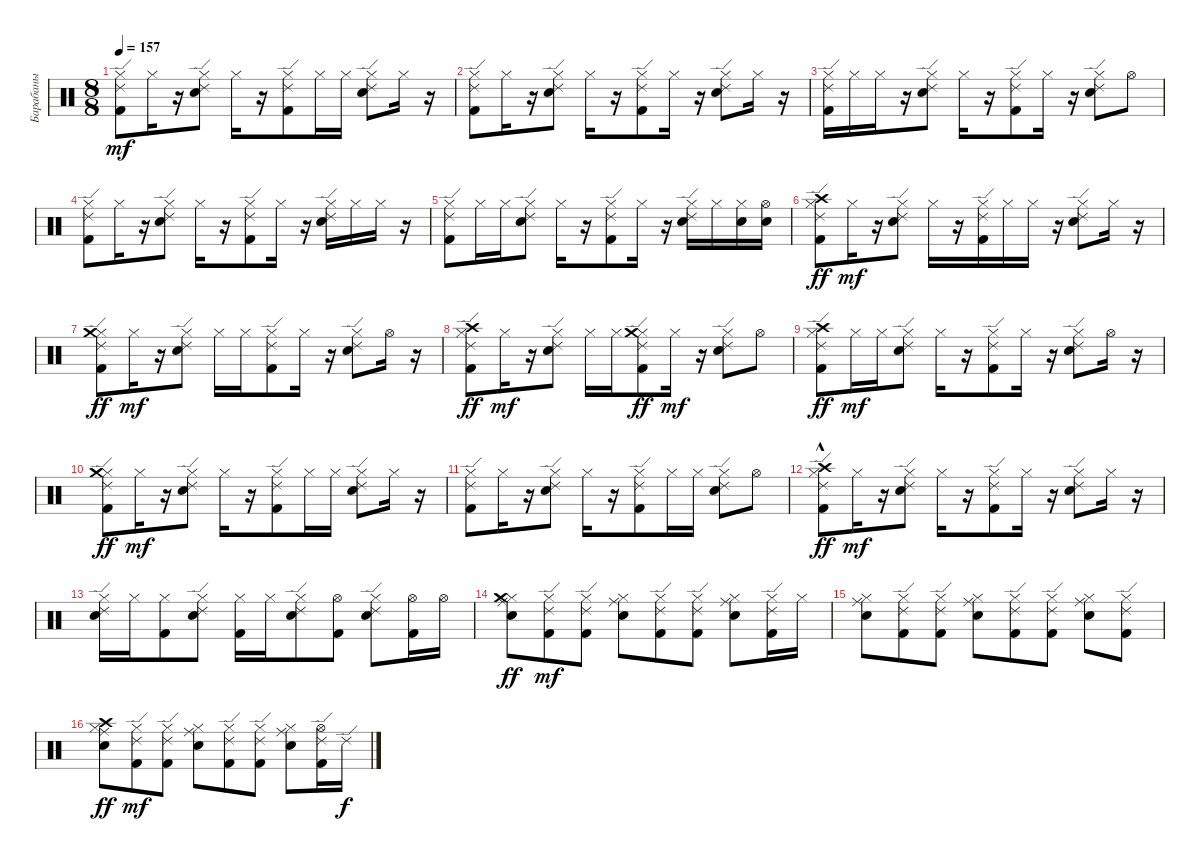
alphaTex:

\track ("Барабаны" "Барабаны") {instrument percussion}
\staff {score}
\articulation defaults
\ts (8 8)
\tempo 157
\clef neutral
\ks c
("Kick (hit) 2" "Hi-Hat (closed)" "Ride (edge) 2").8{dy mf} "Hi-Hat (closed)".16 r.16 ("Snare (hit) 2" "Hi-Hat (closed)" "Ride (edge) 2").8 "Hi-Hat (closed)".16 r.16 ("Kick (hit) 2" "Hi-Hat (closed)" "Ride (edge) 2").8 "Hi-Hat (closed)".16 "Hi-Hat (closed)".16 ("Snare (hit) 2" "Hi-Hat (closed)" "Ride (edge) 2").8 "Hi-Hat (closed)".16 r.16 |
("Kick (hit) 2" "Hi-Hat (closed)" "Ride (edge) 2").8 "Hi-Hat (closed)".16 r.16 ("Snare (hit) 2" "Hi-Hat (closed)" "Ride (edge) 2").8 "Hi-Hat (closed)".16 r.16 ("Kick (hit) 2" "Hi-Hat (closed)" "Ride (edge) 2").8 "Hi-Hat (closed)".16 r.16 ("Snare (hit) 2" "Hi-Hat (closed)" "Ride (edge) 2").8 "Hi-Hat (closed)".16 r.16 |
("Kick (hit) 2" "Hi-Hat (closed)" "Ride (edge) 2").16 "Hi-Hat (closed)".16 "Hi-Hat (closed)".16 r.16 ("Snare (hit) 2" "Hi-Hat (closed)" "Ride (edge) 2").8 "Hi-Hat (closed)".16 r.16 ("Kick (hit) 2" "Hi-Hat (closed)" "Ride (edge) 2").8 "Hi-Hat (closed)".16 r.16 ("Snare (hit) 2" "Hi-Hat (closed)" "Ride (edge) 2").8 "Hi-Hat (open)".8 |
("Kick (hit) 2" "Hi-Hat (closed)" "Ride (edge) 2").8 "Hi-Hat (closed)".16 r.16 ("Snare (hit) 2" "Hi-Hat (closed)" "Ride (edge) 2").8 "Hi-Hat (closed)".16 r.16 ("Kick (hit) 2" "Hi-Hat (closed)" "Ride (edge) 2").8 "Hi-Hat (closed)".16 r.16 ("Snare (hit) 2" "Hi-Hat (closed)" "Ride (edge) 2").16 "Hi-Hat (closed)".16 "Hi-Hat (closed)".16 r.16 |
("Kick (hit) 2" "Hi-Hat (closed)" "Ride (edge) 2").8 "Hi-Hat (closed)".16 "Hi-Hat (closed)".16 ("Snare (hit) 2" "Hi-Hat (closed)" "Ride (edge) 2").8 "Hi-Hat (closed)".16 r.16 ("Kick (hit) 2" "Hi-Hat (closed)" "Ride (edge) 2").8 "Hi-Hat (closed)".16 r.16 ("Snare (hit) 2" "Hi-Hat (closed)" "Ride (edge) 2").16 "Hi-Hat (closed)".16 ("Snare (hit) 2" "Hi-Hat (closed)").16 ("Snare (hit) 2" "Hi-Hat (open)").16 |
("Kick (hit) 2" "Hi-Hat (closed)" "Ride (edge) 2" "Crash high (hit)").8{dy ff} "Hi-Hat (closed)".16{dy mf} r.16 ("Snare (hit) 2" "Hi-Hat (closed)" "Ride (edge) 2").8 "Hi-Hat (closed)".16 r.16 ("Kick (hit) 2" "Hi-Hat (closed)" "Ride (edge) 2").16 "Hi-Hat (closed)".16 "Hi-Hat (closed)".16 r.16 ("Snare (hit) 2" "Hi-Hat (closed)" "Ride (edge) 2").8 "Hi-Hat (closed)".16 r.16 |
("Kick (hit) 2" "Hi-Hat (closed)" "Ride (edge) 2" "Crash medium (hit)").8{dy ff} "Hi-Hat (closed)".16{dy mf} r.16 ("Snare (hit) 2" "Hi-Hat (closed)" "Ride (edge) 2").8 "Hi-Hat (closed)".16 "Hi-Hat (closed)".16 ("Kick (hit) 2" "Hi-Hat (closed)" "Ride (edge) 2").8 "Hi-Hat (closed)".16 r.16 ("Snare (hit) 2" "Hi-Hat (closed)" "Ride (edge) 2").8 "Hi-Hat (open)".16 r.16 |
("Kick (hit) 2" "Hi-Hat (closed)" "Ride (edge) 2" "Crash high (hit)").8{dy ff} "Hi-Hat (closed)".16{dy mf} r.16 ("Snare (hit) 2" "Hi-Hat (closed)" "Ride (edge) 2").8 "Hi-Hat (closed)".16 "Hi-Hat (closed)".16 ("Kick (hit) 2" "Hi-Hat (closed)" "Ride (edge) 2" "Crash medium (hit)").8{dy ff} "Hi-Hat (closed)".16{dy mf} r.16 ("Snare (hit) 2" "Hi-Hat (closed)" "Ride (edge) 2").8 "Hi-Hat (open)".8 |
("Kick (hit) 2" "Hi-Hat (closed)" "Ride (edge) 2" "Crash high (hit)").8{dy ff} "Hi-Hat (closed)".16{dy mf} "Hi-Hat (closed)".16 ("Snare (hit) 2" "Hi-Hat (closed)" "Ride (edge) 2").8 "Hi-Hat (closed)".16 r.16 ("Kick (hit) 2" "Hi-Hat (closed)" "Ride (edge) 2").8 "Hi-Hat (closed)".16 r.16 ("Snare (hit) 2" "Hi-Hat (closed)" "Ride (edge) 2").8 "Hi-Hat (open)".16 r.16 |
("Kick (hit) 2" "Hi-Hat (closed)" "Ride (edge) 2" "Crash medium (hit)").8{dy ff} "Hi-Hat (closed)".16{dy mf} r.16 ("Snare (hit) 2" "Hi-Hat (closed)" "Ride (edge) 2").8 "Hi-Hat (closed)".16 r.16 ("Kick (hit) 2" "Hi-Hat (closed)" "Ride (edge) 2").8 "Hi-Hat (closed)".16 "Hi-Hat (closed)".16 ("Snare (hit) 2" "Hi-Hat (closed)" "Ride (edge) 2").8 "Hi-Hat (closed)".16 r.16 |
("Kick (hit) 2" "Hi-Hat (closed)" "Ride (edge) 2").8 "Hi-Hat (closed)".16 r.16 ("Snare (hit) 2" "Hi-Hat (closed)" "Ride (edge) 2").8 "Hi-Hat (closed)".16 r.16 ("Kick (hit) 2" "Hi-Hat (closed)" "Ride (edge) 2").8 "Hi-Hat (closed)".16 "Hi-Hat (closed)".16 ("Snare (hit) 2" "Hi-Hat (closed)" "Ride (edge) 2").8 "Hi-Hat (open)".8 |
("Kick (hit) 2" "Hi-Hat (closed)" "Ride (edge) 2" "Crash high (hit)"{hac}).8{dy ff} "Hi-Hat (closed)".16{dy mf} r.16 ("Snare (hit) 2" "Hi-Hat (closed)" "Ride (edge) 2").8 "Hi-Hat (closed)".16 r.16 ("Kick (hit) 2" "Hi-Hat (closed)" "Ride (edge) 2").8 "Hi-Hat (closed)".16 r.16 ("Snare (hit) 2" "Hi-Hat (closed)" "Ride (edge) 2").8 "Hi-Hat (closed)".16 r.16 |
("Snare (hit) 2" "Hi-Hat (closed)" "Ride (edge) 2").16 "Hi-Hat (closed)".16 ("Kick (hit) 2" "Hi-Hat (closed)").8 ("Snare (hit) 2" "Hi-Hat (closed)" "Ride (edge) 2").8 ("Kick (hit) 2" "Hi-Hat (closed)").16 "Hi-Hat (closed)".16 ("Snare (hit) 2" "Hi-Hat (closed)" "Ride (edge) 2").8 ("Kick (hit) 2" "Hi-Hat (open)").8 ("Snare (hit) 2" "Hi-Hat (closed)" "Ride (edge) 2").8 ("Kick (hit) 2" "Hi-Hat (open)").16 "Hi-Hat (open)".16 |
("Snare (hit) 2" "Hi-Hat (closed)" "Ride (middle)" "Crash medium (hit)").8{dy ff} ("Kick (hit) 2" "Hi-Hat (closed)" "Ride (edge) 2").8{dy mf} ("Kick (hit) 2" "Hi-Hat (closed)" "Ride (edge) 2").8 ("Snare (hit) 2" "Hi-Hat (closed)" "Ride (middle)").8 ("Kick (hit) 2" "Hi-Hat (closed)" "Ride (edge) 2").8 ("Kick (hit) 2" "Hi-Hat (closed)" "Ride (edge) 2").8 ("Snare (hit) 2" "Hi-Hat (closed)" "Ride (middle)").8 ("Kick (hit) 2" "Hi-Hat (closed)" "Ride (edge) 2").16 "Hi-Hat (closed)".16 |
("Snare (hit) 2" "Hi-Hat (closed)" "Ride (middle)").8 ("Kick (hit) 2" "Hi-Hat (closed)" "Ride (edge) 2").8 ("Kick (hit) 2" "Hi-Hat (closed)" "Ride (edge) 2").8 ("Snare (hit) 2" "Hi-Hat (closed)" "Ride (middle)").8 ("Kick (hit) 2" "Hi-Hat (closed)" "Ride (edge) 2").8 ("Kick (hit) 2" "Hi-Hat (closed)" "Ride (edge) 2").8 ("Snare (hit) 2" "Hi-Hat (closed)" "Ride (middle)").8 ("Kick (hit) 2" "Hi-Hat (closed)" "Ride (edge) 2").8 |
("Snare (hit) 2" "Hi-Hat (closed)" "Ride (middle)" "Crash high (hit)").8{dy ff} ("Kick (hit) 2" "Hi-Hat (closed)" "Ride (edge) 2").8{dy mf} ("Kick (hit) 2" "Hi-Hat (closed)" "Ride (edge) 2").8 ("Snare (hit) 2" "Hi-Hat (closed)" "Ride (middle)").8 ("Kick (hit) 2" "Hi-Hat (closed)" "Ride (edge) 2").8 ("Kick (hit) 2" "Hi-Hat (closed)" "Ride (edge) 2").8 ("Snare (hit) 2" "Hi-Hat (closed)" "Ride (middle)").8 ("Kick (hit) 2" "Hi-Hat (open)" "Ride (edge) 2").16 "Ride (edge) 2".16{dy f}
